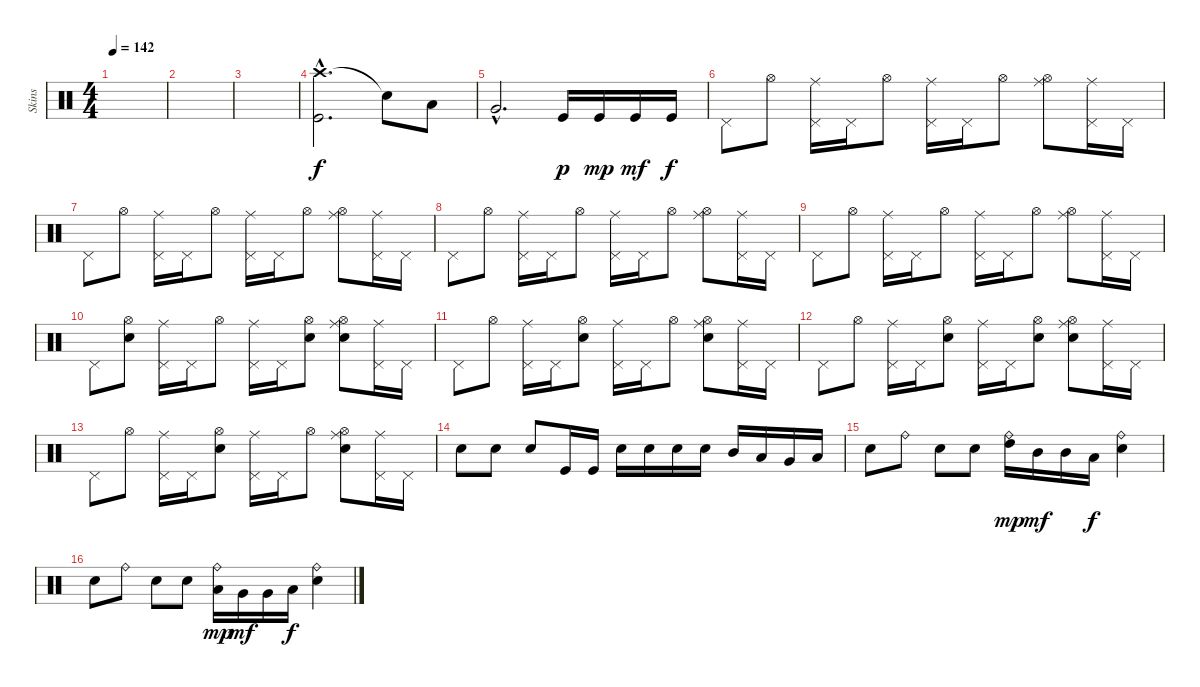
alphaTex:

\track ("Skins" "Skins") {instrument percussion}
\staff {score}
\articulation defaults
\ts (4 4)
\tempo 142
\clef neutral
\ks c
|
|
|
("Crash high (hit)"{hac} "Kick (hit)"{hac}).2{d dy f} "Snare (hit)"{t}.8 "Low Tom (hit)".8 |
"Very Low Tom (hit)"{hac}.2{d} "Kick (hit)".16{dy p} "Kick (hit)".16{dy mp} "Kick (hit)".16{dy mf} "Kick (hit)".16{dy f} |
"Pedal Hi-Hat (hit)".8 "Hi-Hat (open)".8 ("Pedal Hi-Hat (hit)" "Ride (middle)").16 "Pedal Hi-Hat (hit)".16 "Hi-Hat (open)".8 ("Pedal Hi-Hat (hit)" "Ride (middle)").16 "Pedal Hi-Hat (hit)".16 "Hi-Hat (open)".8 ("Hi-Hat (open)" "Ride (middle)").8 ("Pedal Hi-Hat (hit)" "Ride (middle)").16 "Pedal Hi-Hat (hit)".16 |
"Pedal Hi-Hat (hit)".8 "Hi-Hat (open)".8 ("Pedal Hi-Hat (hit)" "Ride (middle)").16 "Pedal Hi-Hat (hit)".16 "Hi-Hat (open)".8 ("Pedal Hi-Hat (hit)" "Ride (middle)").16 "Pedal Hi-Hat (hit)".16 "Hi-Hat (open)".8 ("Hi-Hat (open)" "Ride (middle)").8 ("Pedal Hi-Hat (hit)" "Ride (middle)").16 "Pedal Hi-Hat (hit)".16 |
"Pedal Hi-Hat (hit)".8 "Hi-Hat (open)".8 ("Pedal Hi-Hat (hit)" "Ride (middle)").16 "Pedal Hi-Hat (hit)".16 "Hi-Hat (open)".8 ("Pedal Hi-Hat (hit)" "Ride (middle)").16 "Pedal Hi-Hat (hit)".16 "Hi-Hat (open)".8 ("Hi-Hat (open)" "Ride (middle)").8 ("Pedal Hi-Hat (hit)" "Ride (middle)").16 "Pedal Hi-Hat (hit)".16 |
"Pedal Hi-Hat (hit)".8 "Hi-Hat (open)".8 ("Pedal Hi-Hat (hit)" "Ride (middle)").16 "Pedal Hi-Hat (hit)".16 "Hi-Hat (open)".8 ("Pedal Hi-Hat (hit)" "Ride (middle)").16 "Pedal Hi-Hat (hit)".16 "Hi-Hat (open)".8 ("Hi-Hat (open)" "Ride (middle)").8 ("Pedal Hi-Hat (hit)" "Ride (middle)").16 "Pedal Hi-Hat (hit)".16 |
"Pedal Hi-Hat (hit)".8 ("Hi-Hat (open)" "Electric Snare (hit)").8 ("Pedal Hi-Hat (hit)" "Ride (middle)").16 "Pedal Hi-Hat (hit)".16 "Hi-Hat (open)".8 ("Pedal Hi-Hat (hit)" "Ride (middle)").16 "Pedal Hi-Hat (hit)".16 ("Hi-Hat (open)" "Electric Snare (hit)").8 ("Hi-Hat (open)" "Electric Snare (hit)" "Ride (middle)").8 ("Pedal Hi-Hat (hit)" "Ride (middle)").16 "Pedal Hi-Hat (hit)".16 |
"Pedal Hi-Hat (hit)".8 "Hi-Hat (open)".8 ("Pedal Hi-Hat (hit)" "Ride (middle)").16 "Pedal Hi-Hat (hit)".16 ("Hi-Hat (open)" "Electric Snare (hit)").8 ("Pedal Hi-Hat (hit)" "Ride (middle)").16 "Pedal Hi-Hat (hit)".16 "Hi-Hat (open)".8 ("Hi-Hat (open)" "Electric Snare (hit)" "Ride (middle)").8 ("Pedal Hi-Hat (hit)" "Ride (middle)").16 "Pedal Hi-Hat (hit)".16 |
"Pedal Hi-Hat (hit)".8 "Hi-Hat (open)".8 ("Pedal Hi-Hat (hit)" "Ride (middle)").16 "Pedal Hi-Hat (hit)".16 ("Hi-Hat (open)" "Electric Snare (hit)").8 ("Pedal Hi-Hat (hit)" "Ride (middle)").16 "Pedal Hi-Hat (hit)".16 ("Hi-Hat (open)" "Electric Snare (hit)").8 ("Hi-Hat (open)" "Electric Snare (hit)" "Ride (middle)").8 ("Pedal Hi-Hat (hit)" "Ride (middle)").16 "Pedal Hi-Hat (hit)".16 |
"Pedal Hi-Hat (hit)".8 "Hi-Hat (open)".8 ("Pedal Hi-Hat (hit)" "Ride (middle)").16 "Pedal Hi-Hat (hit)".16 ("Hi-Hat (open)" "Electric Snare (hit)").8 ("Pedal Hi-Hat (hit)" "Ride (middle)").16 "Pedal Hi-Hat (hit)".16 "Hi-Hat (open)".8 ("Hi-Hat (open)" "Electric Snare (hit)" "Ride (middle)").8 ("Pedal Hi-Hat (hit)" "Ride (middle)").16 "Pedal Hi-Hat (hit)".16 |
"Electric Snare (hit)".8 "Electric Snare (hit)".8 "Electric Snare (hit)".8 "Kick (hit)".16 "Kick (hit)".16 "Snare (hit) 2".16 "Electric Snare (hit)".16 "Snare (hit) 2".16 "Snare (hit) 2".16 "Mid Tom (hit)".16 "Low Tom (hit)".16 "Very Low Tom (hit)".16 "Low Floor Tom (hit)".16 |
"Electric Snare (hit)".8 "Ride (bell)".8 "Snare (hit) 2".8 "Electric Snare (hit)".8 ("High Tom (hit)" "Ride (bell)").16{dy mp} "Mid Tom (hit)".16{dy mf} "Mid Tom (hit)".16 "Low Tom (hit)".16{dy f} ("Electric Snare (hit)" "Ride (bell)").4 |
"Electric Snare (hit)".8 "Ride (bell)".8 "Snare (hit) 2".8 "Electric Snare (hit)".8 ("Low Tom (hit)" "Ride (bell)").16{dy mp} "Very Low Tom (hit)".16{dy mf} "Very Low Tom (hit)".16 "Low Floor Tom (hit)".16{dy f} ("Electric Snare (hit)" "Ride (bell)").4
